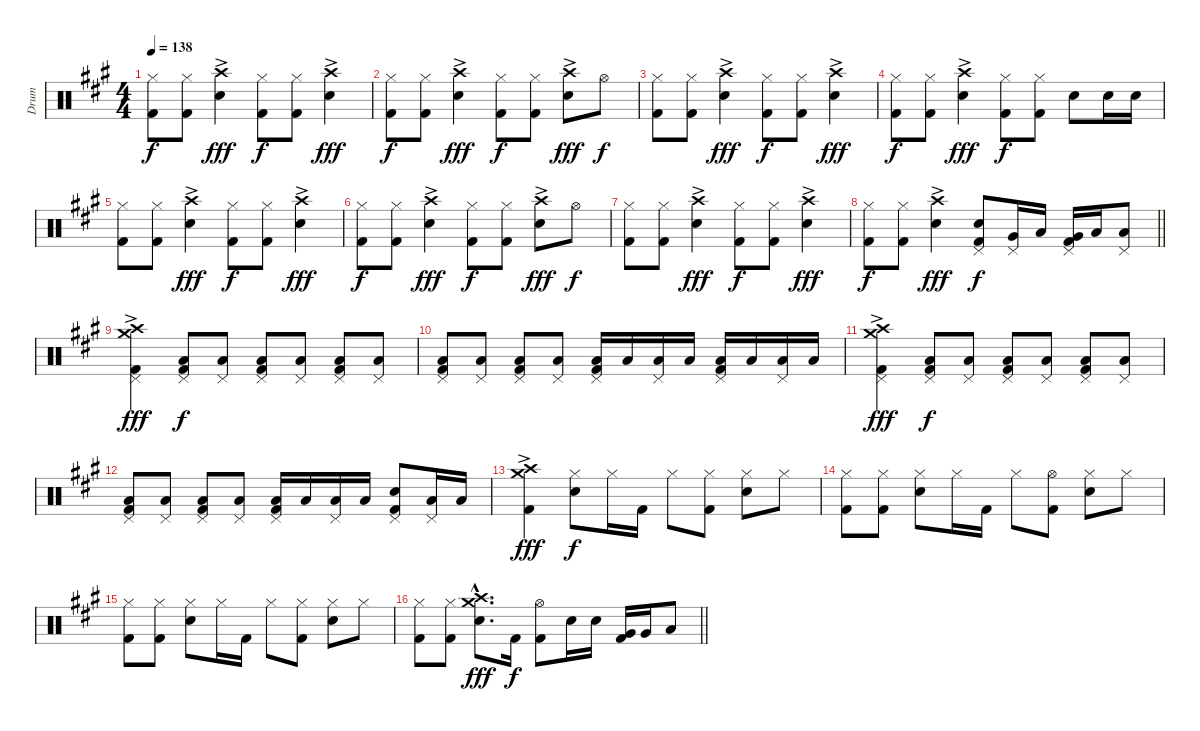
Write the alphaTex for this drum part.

\track ("Drum" "Drum") {instrument percussion}
\staff {score}
\articulation defaults
\ts (4 4)
\tempo 138
\clef neutral
\ks a
("Hi-Hat (closed)" "Kick (hit) 2").8{dy f} ("Hi-Hat (closed)" "Kick (hit) 2").8 ("Crash high (hit)"{ac} "Snare (hit) 2").4{dy fff} ("Hi-Hat (closed)" "Kick (hit) 2").8{dy f} ("Hi-Hat (closed)" "Kick (hit) 2").8 ("Crash high (hit)"{ac} "Snare (hit) 2").4{dy fff} |
("Hi-Hat (closed)" "Kick (hit) 2").8{dy f} ("Hi-Hat (closed)" "Kick (hit) 2").8 ("Crash high (hit)"{ac} "Snare (hit) 2").4{dy fff} ("Hi-Hat (closed)" "Kick (hit) 2").8{dy f} ("Hi-Hat (closed)" "Kick (hit) 2").8 ("Crash high (hit)"{ac} "Snare (hit) 2").8{dy fff} "Hi-Hat (open)".8{dy f} |
("Hi-Hat (closed)" "Kick (hit) 2").8 ("Hi-Hat (closed)" "Kick (hit) 2").8 ("Crash high (hit)"{ac} "Snare (hit) 2").4{dy fff} ("Hi-Hat (closed)" "Kick (hit) 2").8{dy f} ("Hi-Hat (closed)" "Kick (hit) 2").8 ("Crash high (hit)"{ac} "Snare (hit) 2").4{dy fff} |
("Hi-Hat (closed)" "Kick (hit) 2").8{dy f} ("Hi-Hat (closed)" "Kick (hit) 2").8 ("Crash high (hit)"{ac} "Snare (hit) 2").4{dy fff} ("Hi-Hat (closed)" "Kick (hit) 2").8{dy f} ("Hi-Hat (closed)" "Kick (hit) 2").8 "Snare (hit) 2".8 "Snare (hit) 2".16 "Snare (hit) 2".16 |
("Hi-Hat (closed)" "Kick (hit) 2").8 ("Hi-Hat (closed)" "Kick (hit) 2").8 ("Crash high (hit)"{ac} "Snare (hit) 2").4{dy fff} ("Hi-Hat (closed)" "Kick (hit) 2").8{dy f} ("Hi-Hat (closed)" "Kick (hit) 2").8 ("Crash high (hit)"{ac} "Snare (hit) 2").4{dy fff} |
("Hi-Hat (closed)" "Kick (hit) 2").8{dy f} ("Hi-Hat (closed)" "Kick (hit) 2").8 ("Crash high (hit)"{ac} "Snare (hit) 2").4{dy fff} ("Hi-Hat (closed)" "Kick (hit) 2").8{dy f} ("Hi-Hat (closed)" "Kick (hit) 2").8 ("Crash high (hit)"{ac} "Snare (hit) 2").8{dy fff} "Hi-Hat (open)".8{dy f} |
("Hi-Hat (closed)" "Kick (hit) 2").8 ("Hi-Hat (closed)" "Kick (hit) 2").8 ("Crash high (hit)"{ac} "Snare (hit) 2").4{dy fff} ("Hi-Hat (closed)" "Kick (hit) 2").8{dy f} ("Hi-Hat (closed)" "Kick (hit) 2").8 ("Crash high (hit)"{ac} "Snare (hit) 2").4{dy fff} |
\barLineRight lightlight
("Hi-Hat (closed)" "Kick (hit) 2").8{dy f} ("Hi-Hat (closed)" "Kick (hit) 2").8 ("Crash high (hit)"{ac} "Snare (hit) 2").4{dy fff} ("Pedal Hi-Hat (hit)" "Snare (hit) 2" "Kick (hit) 2").8{dy f} ("Very Low Tom (hit)" "Pedal Hi-Hat (hit)").16 "Low Floor Tom (hit)".16 ("Very Low Tom (hit)" "Pedal Hi-Hat (hit)" "Kick (hit) 2").16 "Low Floor Tom (hit)".16 ("Low Floor Tom (hit)" "Pedal Hi-Hat (hit)").8 |
("Crash medium (hit)"{ac} "Crash high (hit)"{ac} "Pedal Hi-Hat (hit)" "Kick (hit) 2").4{dy fff} ("Low Floor Tom (hit)" "Pedal Hi-Hat (hit)" "Kick (hit) 2").8{dy f} ("Low Floor Tom (hit)" "Pedal Hi-Hat (hit)").8 ("Low Floor Tom (hit)" "Pedal Hi-Hat (hit)" "Kick (hit) 2").8 ("Low Floor Tom (hit)" "Pedal Hi-Hat (hit)").8 ("Low Floor Tom (hit)" "Pedal Hi-Hat (hit)" "Kick (hit) 2").8 ("Low Floor Tom (hit)" "Pedal Hi-Hat (hit)").8 |
("Low Floor Tom (hit)" "Pedal Hi-Hat (hit)" "Kick (hit) 2").8 ("Low Floor Tom (hit)" "Pedal Hi-Hat (hit)").8 ("Low Floor Tom (hit)" "Pedal Hi-Hat (hit)" "Kick (hit) 2").8 ("Low Floor Tom (hit)" "Pedal Hi-Hat (hit)").8 ("Low Floor Tom (hit)" "Pedal Hi-Hat (hit)" "Kick (hit) 2").16 "Low Floor Tom (hit)".16 ("Low Floor Tom (hit)" "Pedal Hi-Hat (hit)").16 "Low Floor Tom (hit)".16 ("Low Floor Tom (hit)" "Pedal Hi-Hat (hit)" "Kick (hit) 2").16 "Low Floor Tom (hit)".16 ("Low Floor Tom (hit)" "Pedal Hi-Hat (hit)").16 "Low Floor Tom (hit)".16 |
("Crash medium (hit)"{ac} "Crash high (hit)"{ac} "Pedal Hi-Hat (hit)" "Kick (hit) 2").4{dy fff} ("Low Floor Tom (hit)" "Pedal Hi-Hat (hit)" "Kick (hit) 2").8{dy f} ("Low Floor Tom (hit)" "Pedal Hi-Hat (hit)").8 ("Low Floor Tom (hit)" "Pedal Hi-Hat (hit)" "Kick (hit) 2").8 ("Low Floor Tom (hit)" "Pedal Hi-Hat (hit)").8 ("Low Floor Tom (hit)" "Pedal Hi-Hat (hit)" "Kick (hit) 2").8 ("Low Floor Tom (hit)" "Pedal Hi-Hat (hit)").8 |
("Low Floor Tom (hit)" "Pedal Hi-Hat (hit)" "Kick (hit) 2").8 ("Low Floor Tom (hit)" "Pedal Hi-Hat (hit)").8 ("Low Floor Tom (hit)" "Pedal Hi-Hat (hit)" "Kick (hit) 2").8 ("Low Floor Tom (hit)" "Pedal Hi-Hat (hit)").8 ("Low Floor Tom (hit)" "Pedal Hi-Hat (hit)" "Kick (hit) 2").16 "Low Floor Tom (hit)".16 ("Low Floor Tom (hit)" "Pedal Hi-Hat (hit)").16 "Low Floor Tom (hit)".16 ("Pedal Hi-Hat (hit)" "Snare (hit) 2" "Kick (hit) 2").8 ("Low Floor Tom (hit)" "Pedal Hi-Hat (hit)").16 "Low Floor Tom (hit)".16 |
("Crash medium (hit)"{ac} "Crash high (hit)"{ac} "Kick (hit) 2").4{dy fff} ("Hi-Hat (closed)" "Snare (hit) 2").8{dy f} "Hi-Hat (closed)".16 "Kick (hit) 2".16 "Hi-Hat (closed)".8 ("Hi-Hat (closed)" "Kick (hit) 2").8 ("Hi-Hat (closed)" "Snare (hit) 2").8 "Hi-Hat (closed)".8 |
("Hi-Hat (closed)" "Kick (hit) 2").8 ("Hi-Hat (closed)" "Kick (hit) 2").8 ("Hi-Hat (closed)" "Snare (hit) 2").8 "Hi-Hat (closed)".16 "Kick (hit) 2".16 "Hi-Hat (closed)".8 ("Hi-Hat (open)" "Kick (hit) 2").8 ("Hi-Hat (closed)" "Snare (hit) 2").8 "Hi-Hat (closed)".8 |
("Hi-Hat (closed)" "Kick (hit) 2").8 ("Hi-Hat (closed)" "Kick (hit) 2").8 ("Hi-Hat (closed)" "Snare (hit) 2").8 "Hi-Hat (closed)".16 "Kick (hit) 2".16 "Hi-Hat (closed)".8 ("Hi-Hat (closed)" "Kick (hit) 2").8 ("Hi-Hat (closed)" "Snare (hit) 2").8 "Hi-Hat (closed)".8 |
\barLineRight lightlight
("Hi-Hat (closed)" "Kick (hit) 2").8 ("Hi-Hat (closed)" "Kick (hit) 2").8 ("Crash medium (hit)"{hac} "Crash high (hit)"{hac} "Snare (hit) 2"{hac}).8{d dy fff} "Kick (hit) 2".16{dy f} ("Hi-Hat (open)" "Kick (hit) 2").8 "Snare (hit) 2".16 "Snare (hit) 2".16 ("Very Low Tom (hit)" "Kick (hit) 2").16 "Very Low Tom (hit)".16 "Low Floor Tom (hit)".8
